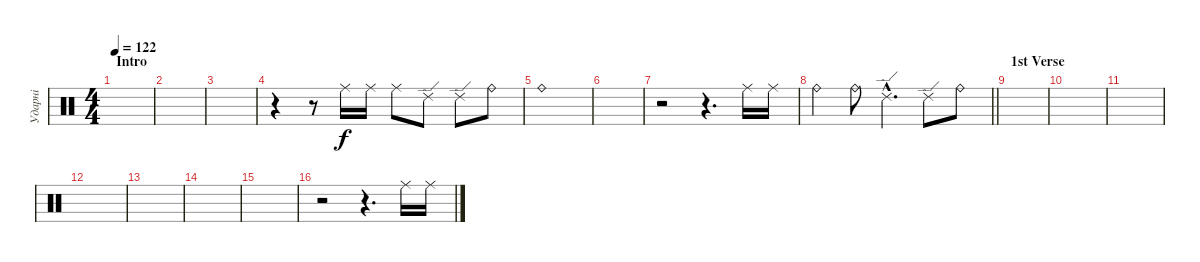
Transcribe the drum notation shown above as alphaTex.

\track ("Ударні" "Ударні") {instrument percussion}
\staff {score}
\articulation defaults
\ts (4 4)
\section ("" "Intro")
\tempo 122
\clef neutral
\ks c
|
|
|
r.4 r.8 "Ride (middle)".16 "Ride (middle)".16 "Ride (middle)".8 "Ride (edge) 2".8 "Ride (edge) 2".8 "Ride (bell)".8 |
"Ride (bell)".1 |
|
r.2 r.4{d} "Ride (middle)".16 "Ride (middle)".16 |
\barLineRight lightlight "Ride (bell)".4 "Ride (bell)".8 "Ride (edge) 2"{hac}.4{d} "Ride (edge) 2".8 "Ride (bell)".8
|
\section ("" "1st Verse")
|
|
|
|
|
|
|
r.2 r.4{d} "Ride (middle)".16 "Ride (middle)".16
